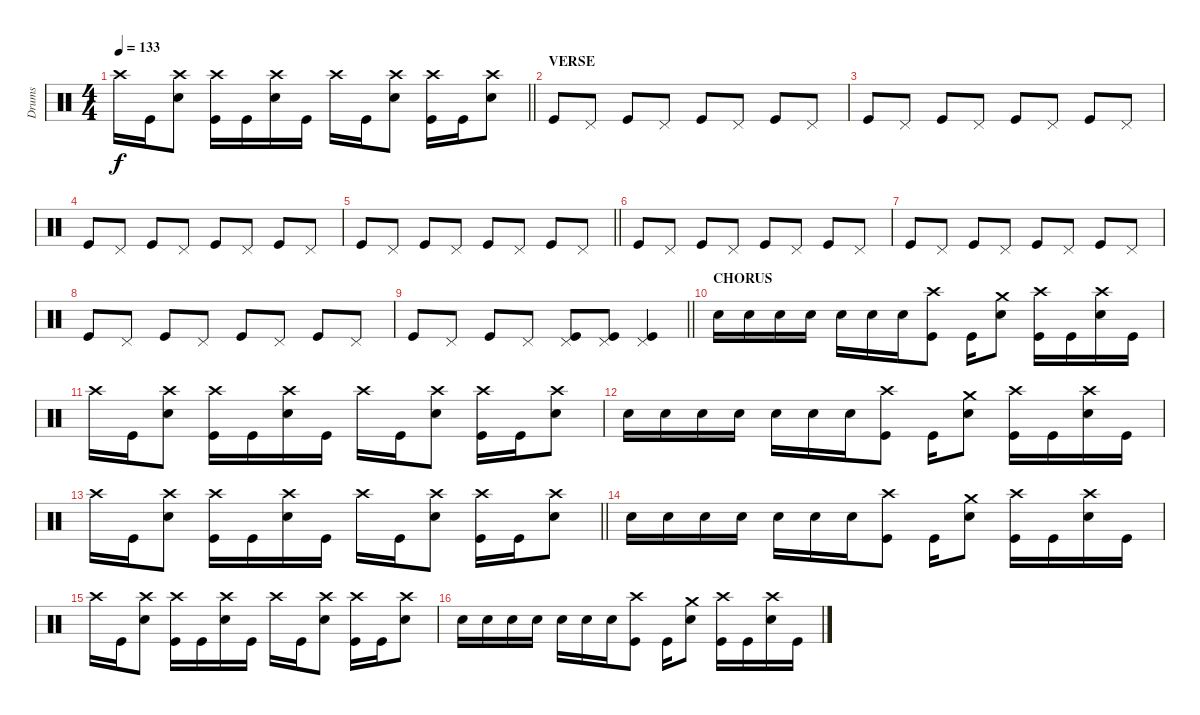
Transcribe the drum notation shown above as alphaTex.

\track ("Drums" "Drums") {instrument percussion}
\staff
\articulation defaults
\ts (4 4)
\tempo 133
\clef neutral
\barLineRight lightlight
\ks c "Crash high (hit)".16{dy f} "Kick (hit)".16
("Crash high (hit)" "Electric Snare (hit)").8 ("Crash high (hit)" "Kick (hit)").16 "Kick (hit)".16 ("Crash high (hit)" "Electric Snare (hit)").16 "Kick (hit)".16 "Crash high (hit)".16 "Kick (hit)".16 ("Crash high (hit)" "Electric Snare (hit)").8 ("Crash high (hit)" "Kick (hit)").16 "Kick (hit)".16 ("Crash high (hit)" "Electric Snare (hit)").8 |
\section ("" "VERSE")
"Kick (hit)".8 "Pedal Hi-Hat (hit)".8 "Kick (hit)".8 "Pedal Hi-Hat (hit)".8 "Kick (hit)".8 "Pedal Hi-Hat (hit)".8 "Kick (hit)".8 "Pedal Hi-Hat (hit)".8 |
"Kick (hit)".8 "Pedal Hi-Hat (hit)".8 "Kick (hit)".8 "Pedal Hi-Hat (hit)".8 "Kick (hit)".8 "Pedal Hi-Hat (hit)".8 "Kick (hit)".8 "Pedal Hi-Hat (hit)".8 |
"Kick (hit)".8 "Pedal Hi-Hat (hit)".8 "Kick (hit)".8 "Pedal Hi-Hat (hit)".8 "Kick (hit)".8 "Pedal Hi-Hat (hit)".8 "Kick (hit)".8 "Pedal Hi-Hat (hit)".8 |
\barLineRight lightlight "Kick (hit)".8 "Pedal Hi-Hat (hit)".8 "Kick (hit)".8 "Pedal Hi-Hat (hit)".8 "Kick (hit)".8 "Pedal Hi-Hat (hit)".8 "Kick (hit)".8 "Pedal Hi-Hat (hit)".8
|
"Kick (hit)".8 "Pedal Hi-Hat (hit)".8 "Kick (hit)".8 "Pedal Hi-Hat (hit)".8 "Kick (hit)".8 "Pedal Hi-Hat (hit)".8 "Kick (hit)".8 "Pedal Hi-Hat (hit)".8 |
"Kick (hit)".8 "Pedal Hi-Hat (hit)".8 "Kick (hit)".8 "Pedal Hi-Hat (hit)".8 "Kick (hit)".8 "Pedal Hi-Hat (hit)".8 "Kick (hit)".8 "Pedal Hi-Hat (hit)".8 |
"Kick (hit)".8 "Pedal Hi-Hat (hit)".8 "Kick (hit)".8 "Pedal Hi-Hat (hit)".8 "Kick (hit)".8 "Pedal Hi-Hat (hit)".8 "Kick (hit)".8 "Pedal Hi-Hat (hit)".8 |
\barLineRight lightlight "Kick (hit)".8 "Pedal Hi-Hat (hit)".8 "Kick (hit)".8 "Pedal Hi-Hat (hit)".8
("Pedal Hi-Hat (hit)" "Kick (hit)").8 ("Pedal Hi-Hat (hit)" "Kick (hit)").8 ("Pedal Hi-Hat (hit)" "Kick (hit)").4 |
\section ("" "CHORUS")
"Electric Snare (hit)".16 "Electric Snare (hit)".16 "Electric Snare (hit)".16 "Electric Snare (hit)".16 "Electric Snare (hit)".16 "Electric Snare (hit)".16 "Electric Snare (hit)".16 ("Crash high (hit)" "Kick (hit)").8 "Kick (hit)".16 ("Crash medium (hit)" "Electric Snare (hit)").8 ("Crash high (hit)" "Kick (hit)").16 "Kick (hit)".16 ("Crash high (hit)" "Electric Snare (hit)").16 "Kick (hit)".16 |
"Crash high (hit)".16 "Kick (hit)".16 ("Crash high (hit)" "Electric Snare (hit)").8 ("Crash high (hit)" "Kick (hit)").16 "Kick (hit)".16 ("Crash high (hit)" "Electric Snare (hit)").16 "Kick (hit)".16 "Crash high (hit)".16 "Kick (hit)".16 ("Crash high (hit)" "Electric Snare (hit)").8 ("Crash high (hit)" "Kick (hit)").16 "Kick (hit)".16 ("Crash high (hit)" "Electric Snare (hit)").8 |
"Electric Snare (hit)".16 "Electric Snare (hit)".16 "Electric Snare (hit)".16 "Electric Snare (hit)".16 "Electric Snare (hit)".16 "Electric Snare (hit)".16 "Electric Snare (hit)".16 ("Crash high (hit)" "Kick (hit)").8 "Kick (hit)".16 ("Crash medium (hit)" "Electric Snare (hit)").8 ("Crash high (hit)" "Kick (hit)").16 "Kick (hit)".16 ("Crash high (hit)" "Electric Snare (hit)").16 "Kick (hit)".16 |
\barLineRight lightlight "Crash high (hit)".16 "Kick (hit)".16
("Crash high (hit)" "Electric Snare (hit)").8 ("Crash high (hit)" "Kick (hit)").16 "Kick (hit)".16 ("Crash high (hit)" "Electric Snare (hit)").16 "Kick (hit)".16 "Crash high (hit)".16 "Kick (hit)".16 ("Crash high (hit)" "Electric Snare (hit)").8 ("Crash high (hit)" "Kick (hit)").16 "Kick (hit)".16 ("Crash high (hit)" "Electric Snare (hit)").8 |
"Electric Snare (hit)".16 "Electric Snare (hit)".16 "Electric Snare (hit)".16 "Electric Snare (hit)".16 "Electric Snare (hit)".16 "Electric Snare (hit)".16 "Electric Snare (hit)".16 ("Crash high (hit)" "Kick (hit)").8 "Kick (hit)".16 ("Crash medium (hit)" "Electric Snare (hit)").8 ("Crash high (hit)" "Kick (hit)").16 "Kick (hit)".16 ("Crash high (hit)" "Electric Snare (hit)").16 "Kick (hit)".16 |
"Crash high (hit)".16 "Kick (hit)".16 ("Crash high (hit)" "Electric Snare (hit)").8 ("Crash high (hit)" "Kick (hit)").16 "Kick (hit)".16 ("Crash high (hit)" "Electric Snare (hit)").16 "Kick (hit)".16 "Crash high (hit)".16 "Kick (hit)".16 ("Crash high (hit)" "Electric Snare (hit)").8 ("Crash high (hit)" "Kick (hit)").16 "Kick (hit)".16 ("Crash high (hit)" "Electric Snare (hit)").8 |
"Electric Snare (hit)".16 "Electric Snare (hit)".16 "Electric Snare (hit)".16 "Electric Snare (hit)".16 "Electric Snare (hit)".16 "Electric Snare (hit)".16 "Electric Snare (hit)".16 ("Crash high (hit)" "Kick (hit)").8 "Kick (hit)".16 ("Crash medium (hit)" "Electric Snare (hit)").8 ("Crash high (hit)" "Kick (hit)").16 "Kick (hit)".16 ("Crash high (hit)" "Electric Snare (hit)").16 "Kick (hit)".16
